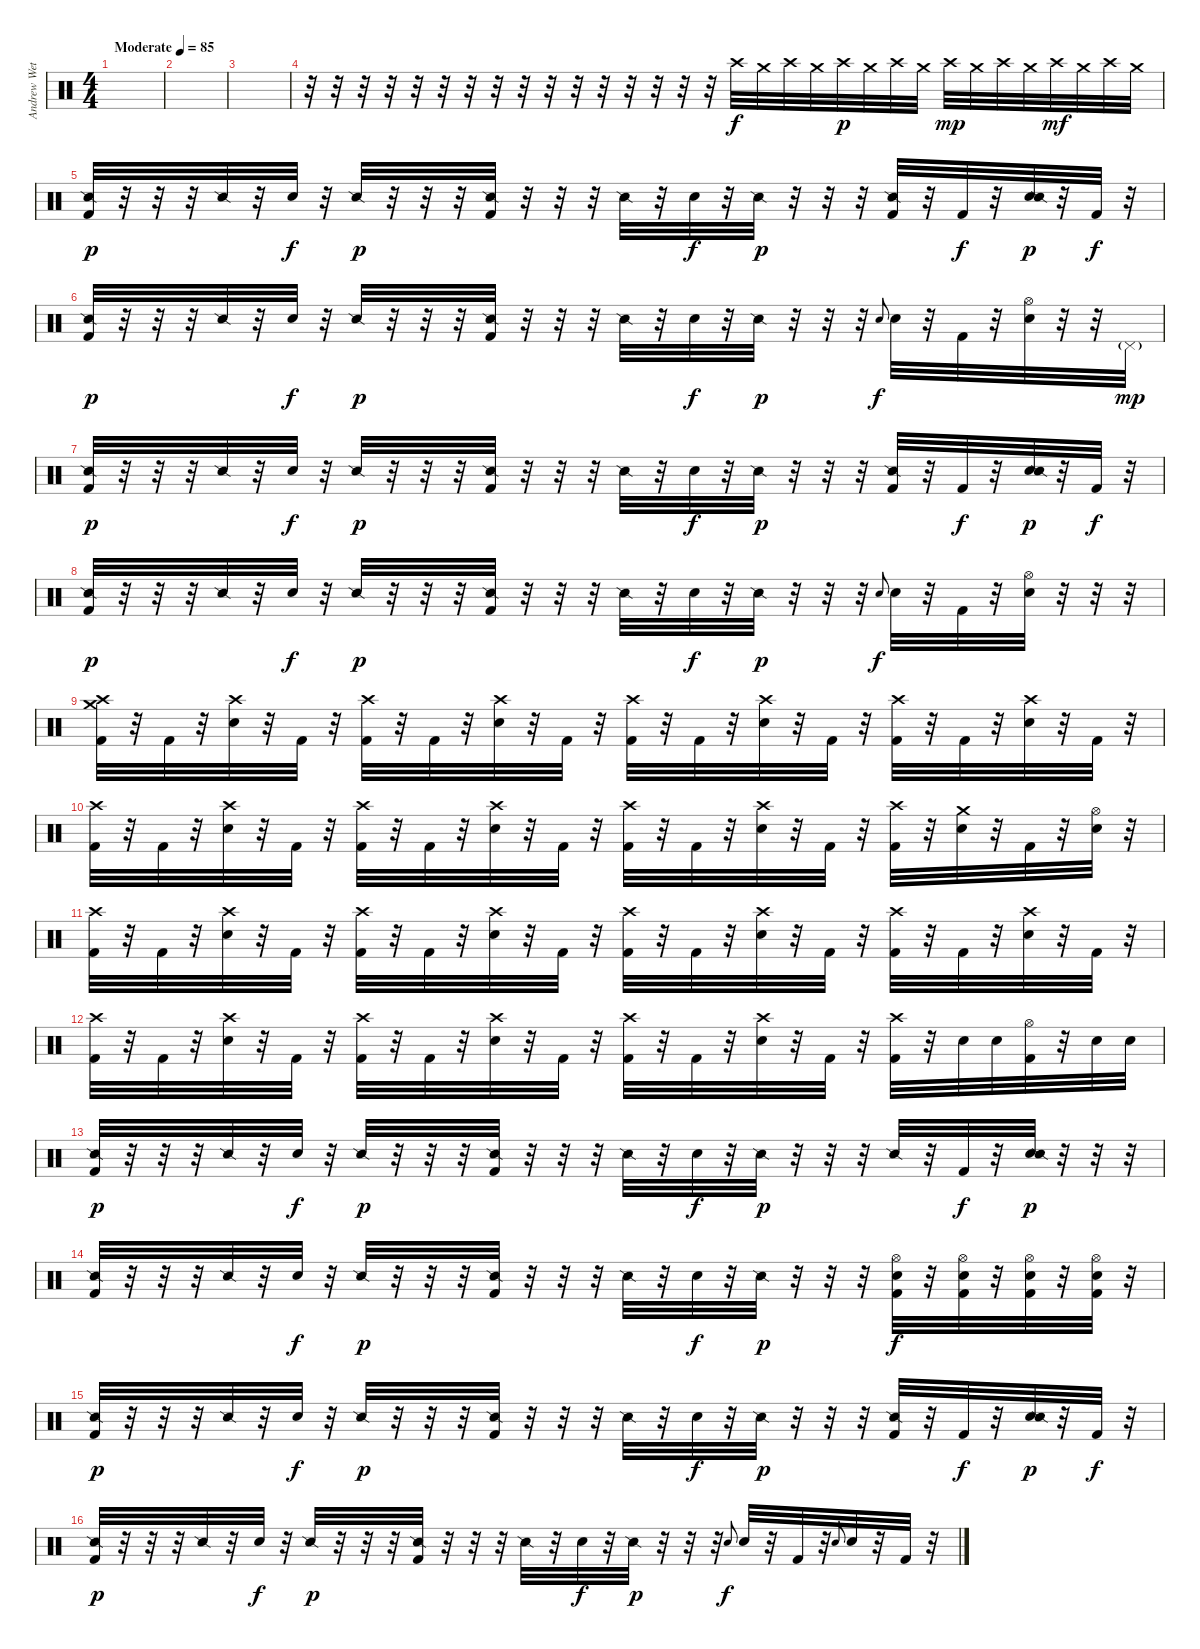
\track ("Andrew Wetzel" "Andrew Wet") {instrument percussion}
\staff {score}
\articulation defaults
\ts (4 4)
\tempo (85 "Moderate")
\clef neutral
\ks c
|
|
|
r.32 r.32 r.32 r.32 r.32 r.32 r.32 r.32 r.32 r.32 r.32 r.32 r.32 r.32 r.32 r.32 "Crash high (hit)".32 "Crash medium (hit)".32 "Crash high (hit)".32 "Crash medium (hit)".32 "Crash high (hit)".32{dy p} "Crash medium (hit)".32 "Crash high (hit)".32 "Crash medium (hit)".32 "Crash high (hit)".32{dy mp} "Crash medium (hit)".32 "Crash high (hit)".32 "Crash medium (hit)".32 "Crash high (hit)".32{dy mf} "Crash medium (hit)".32 "Crash high (hit)".32 "Crash medium (hit)".32 |
("Snare (side stick) 2" "Kick (hit) 2").32{dy p} r.32 r.32 r.32 "Snare (side stick) 2".32 r.32 "Electric Snare (hit)".32{dy f} r.32 "Snare (side stick) 2".32{dy p} r.32 r.32 r.32 ("Snare (side stick) 2" "Kick (hit) 2").32 r.32 r.32 r.32 "Snare (side stick) 2".32 r.32 "Electric Snare (hit)".32{dy f} r.32 "Snare (side stick) 2".32{dy p} r.32 r.32 r.32 ("Snare (side stick) 2" "Kick (hit) 2").32 r.32 "Kick (hit) 2".32{dy f} r.32 ("Electric Snare (hit)" "Snare (side stick) 2").32{dy p} r.32 "Kick (hit) 2".32{dy f} r.32 |
("Snare (side stick) 2" "Kick (hit) 2").32{dy p} r.32 r.32 r.32 "Snare (side stick) 2".32 r.32 "Electric Snare (hit)".32{dy f} r.32 "Snare (side stick) 2".32{dy p} r.32 r.32 r.32 ("Snare (side stick) 2" "Kick (hit) 2").32 r.32 r.32 r.32 "Snare (side stick) 2".32 r.32 "Electric Snare (hit)".32{dy f} r.32 "Snare (side stick) 2".32{dy p} r.32 r.32 r.32 "Electric Snare (hit)".8{gr onbeat dy f} "Electric Snare (hit)".32 r.32 "Kick (hit) 2".32 r.32 ("Hi-Hat (open)" "Electric Snare (hit)").32 r.32 r.32 "Pedal Hi-Hat (hit)"{g}.32{dy mp} |
("Snare (side stick) 2" "Kick (hit) 2").32{dy p} r.32 r.32 r.32 "Snare (side stick) 2".32 r.32 "Electric Snare (hit)".32{dy f} r.32 "Snare (side stick) 2".32{dy p} r.32 r.32 r.32 ("Snare (side stick) 2" "Kick (hit) 2").32 r.32 r.32 r.32 "Snare (side stick) 2".32 r.32 "Electric Snare (hit)".32{dy f} r.32 "Snare (side stick) 2".32{dy p} r.32 r.32 r.32 ("Snare (side stick) 2" "Kick (hit) 2").32 r.32 "Kick (hit) 2".32{dy f} r.32 ("Electric Snare (hit)" "Snare (side stick) 2").32{dy p} r.32 "Kick (hit) 2".32{dy f} r.32 |
("Snare (side stick) 2" "Kick (hit) 2").32{dy p} r.32 r.32 r.32 "Snare (side stick) 2".32 r.32 "Electric Snare (hit)".32{dy f} r.32 "Snare (side stick) 2".32{dy p} r.32 r.32 r.32 ("Snare (side stick) 2" "Kick (hit) 2").32 r.32 r.32 r.32 "Snare (side stick) 2".32 r.32 "Electric Snare (hit)".32{dy f} r.32 "Snare (side stick) 2".32{dy p} r.32 r.32 r.32 "Electric Snare (hit)".8{gr onbeat dy f} "Electric Snare (hit)".32 r.32 "Kick (hit) 2".32 r.32 ("Hi-Hat (open)" "Electric Snare (hit)").32 r.32 r.32 r.32 |
("Crash medium (hit)" "Crash high (hit)" "Kick (hit) 2").32 r.32 "Kick (hit) 2".32 r.32 ("Crash high (hit)" "Electric Snare (hit)").32 r.32 "Kick (hit) 2".32 r.32 ("Crash high (hit)" "Kick (hit) 2").32 r.32 "Kick (hit) 2".32 r.32 ("Crash high (hit)" "Electric Snare (hit)").32 r.32 "Kick (hit) 2".32 r.32 ("Crash high (hit)" "Kick (hit) 2").32 r.32 "Kick (hit) 2".32 r.32 ("Crash high (hit)" "Electric Snare (hit)").32 r.32 "Kick (hit) 2".32 r.32 ("Crash high (hit)" "Kick (hit) 2").32 r.32 "Kick (hit) 2".32 r.32 ("Crash high (hit)" "Electric Snare (hit)").32 r.32 "Kick (hit) 2".32 r.32 |
("Crash high (hit)" "Kick (hit) 2").32 r.32 "Kick (hit) 2".32 r.32 ("Crash high (hit)" "Electric Snare (hit)").32 r.32 "Kick (hit) 2".32 r.32 ("Crash high (hit)" "Kick (hit) 2").32 r.32 "Kick (hit) 2".32 r.32 ("Crash high (hit)" "Electric Snare (hit)").32 r.32 "Kick (hit) 2".32 r.32 ("Crash high (hit)" "Kick (hit) 2").32 r.32 "Kick (hit) 2".32 r.32 ("Crash high (hit)" "Electric Snare (hit)").32 r.32 "Kick (hit) 2".32 r.32 ("Crash high (hit)" "Kick (hit) 2").32 r.32 ("Crash medium (hit)" "Electric Snare (hit)").32 r.32 "Kick (hit) 2".32 r.32 ("Hi-Hat (open)" "Electric Snare (hit)").32 r.32 |
("Crash high (hit)" "Kick (hit) 2").32 r.32 "Kick (hit) 2".32 r.32 ("Crash high (hit)" "Electric Snare (hit)").32 r.32 "Kick (hit) 2".32 r.32 ("Crash high (hit)" "Kick (hit) 2").32 r.32 "Kick (hit) 2".32 r.32 ("Crash high (hit)" "Electric Snare (hit)").32 r.32 "Kick (hit) 2".32 r.32 ("Crash high (hit)" "Kick (hit) 2").32 r.32 "Kick (hit) 2".32 r.32 ("Crash high (hit)" "Electric Snare (hit)").32 r.32 "Kick (hit) 2".32 r.32 ("Crash high (hit)" "Kick (hit) 2").32 r.32 "Kick (hit) 2".32 r.32 ("Crash high (hit)" "Electric Snare (hit)").32 r.32 "Kick (hit) 2".32 r.32 |
("Crash high (hit)" "Kick (hit) 2").32 r.32 "Kick (hit) 2".32 r.32 ("Crash high (hit)" "Electric Snare (hit)").32 r.32 "Kick (hit) 2".32 r.32 ("Crash high (hit)" "Kick (hit) 2").32 r.32 "Kick (hit) 2".32 r.32 ("Crash high (hit)" "Electric Snare (hit)").32 r.32 "Kick (hit) 2".32 r.32 ("Crash high (hit)" "Kick (hit) 2").32 r.32 "Kick (hit) 2".32 r.32 ("Crash high (hit)" "Electric Snare (hit)").32 r.32 "Kick (hit) 2".32 r.32 ("Crash high (hit)" "Kick (hit) 2").32 r.32 "Electric Snare (hit)".32 "Electric Snare (hit)".32 ("Hi-Hat (open)" "Kick (hit) 2").32 r.32 "Electric Snare (hit)".32 "Electric Snare (hit)".32 |
("Snare (side stick) 2" "Kick (hit) 2").32{dy p} r.32 r.32 r.32 "Snare (side stick) 2".32 r.32 "Electric Snare (hit)".32{dy f} r.32 "Snare (side stick) 2".32{dy p} r.32 r.32 r.32 ("Snare (side stick) 2" "Kick (hit) 2").32 r.32 r.32 r.32 "Snare (side stick) 2".32 r.32 "Electric Snare (hit)".32{dy f} r.32 "Snare (side stick) 2".32{dy p} r.32 r.32 r.32 "Snare (side stick) 2".32 r.32 "Kick (hit) 2".32{dy f} r.32 ("Electric Snare (hit)" "Snare (side stick) 2").32{dy p} r.32 r.32 r.32 |
("Snare (side stick) 2" "Kick (hit) 2").32 r.32 r.32 r.32 "Snare (side stick) 2".32 r.32 "Electric Snare (hit)".32{dy f} r.32 "Snare (side stick) 2".32{dy p} r.32 r.32 r.32 ("Snare (side stick) 2" "Kick (hit) 2").32 r.32 r.32 r.32 "Snare (side stick) 2".32 r.32 "Electric Snare (hit)".32{dy f} r.32 "Snare (side stick) 2".32{dy p} r.32 r.32 r.32 ("Hi-Hat (open)" "Electric Snare (hit)" "Kick (hit) 2").32{dy f} r.32 ("Hi-Hat (open)" "Electric Snare (hit)" "Kick (hit) 2").32 r.32 ("Hi-Hat (open)" "Electric Snare (hit)" "Kick (hit) 2").32 r.32 ("Hi-Hat (open)" "Electric Snare (hit)" "Kick (hit) 2").32 r.32 |
("Snare (side stick) 2" "Kick (hit) 2").32{dy p} r.32 r.32 r.32 "Snare (side stick) 2".32 r.32 "Electric Snare (hit)".32{dy f} r.32 "Snare (side stick) 2".32{dy p} r.32 r.32 r.32 ("Snare (side stick) 2" "Kick (hit) 2").32 r.32 r.32 r.32 "Snare (side stick) 2".32 r.32 "Electric Snare (hit)".32{dy f} r.32 "Snare (side stick) 2".32{dy p} r.32 r.32 r.32 ("Snare (side stick) 2" "Kick (hit) 2").32 r.32 "Kick (hit) 2".32{dy f} r.32 ("Electric Snare (hit)" "Snare (side stick) 2").32{dy p} r.32 "Kick (hit) 2".32{dy f} r.32 |
("Snare (side stick) 2" "Kick (hit) 2").32{dy p} r.32 r.32 r.32 "Snare (side stick) 2".32 r.32 "Electric Snare (hit)".32{dy f} r.32 "Snare (side stick) 2".32{dy p} r.32 r.32 r.32 ("Snare (side stick) 2" "Kick (hit) 2").32 r.32 r.32 r.32 "Snare (side stick) 2".32 r.32 "Electric Snare (hit)".32{dy f} r.32 "Snare (side stick) 2".32{dy p} r.32 r.32 r.32 "Electric Snare (hit)".8{gr onbeat dy f} "Electric Snare (hit)".32 r.32 "Kick (hit) 2".32 r.32 "Electric Snare (hit)".8{gr onbeat} "Electric Snare (hit)".32 r.32 "Kick (hit) 2".32 r.32
